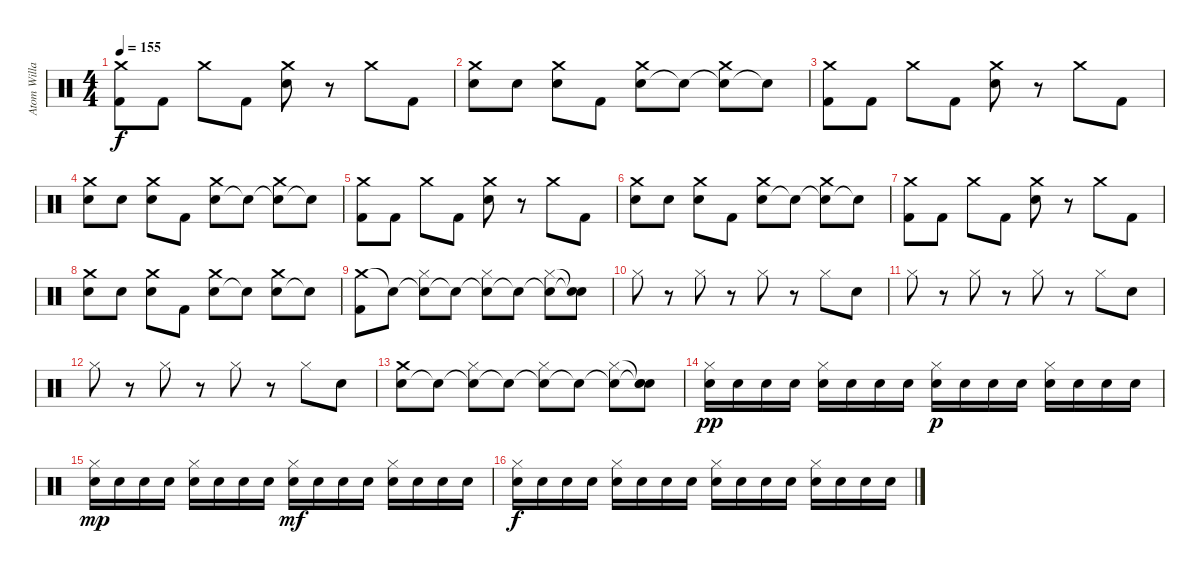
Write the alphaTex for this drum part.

\track ("Atom Willard - Drums" "Atom Willa") {instrument percussion}
\staff {score}
\articulation defaults
\ts (4 4)
\tempo 155
\clef neutral
\ks c
("Kick (hit) 2" "Crash medium (hit)").8{dy f} "Kick (hit) 2".8 "Crash medium (hit)".8 "Kick (hit) 2".8 ("Electric Snare (hit)" "Crash medium (hit)").8 r.8 "Crash medium (hit)".8 "Kick (hit) 2".8 |
("Snare (hit)" "Crash medium (hit)").8 "Electric Snare (hit)".8 ("Snare (hit)" "Crash medium (hit)").8 "Kick (hit) 2".8 ("Electric Snare (hit)" "Crash medium (hit)").8 "Snare (hit)"{t}.8 ("Snare (hit)"{t} "Crash medium (hit)").8 "Snare (hit)"{t}.8 |
("Kick (hit) 2" "Crash medium (hit)").8 "Kick (hit) 2".8 "Crash medium (hit)".8 "Kick (hit) 2".8 ("Electric Snare (hit)" "Crash medium (hit)").8 r.8 "Crash medium (hit)".8 "Kick (hit) 2".8 |
("Snare (hit)" "Crash medium (hit)").8 "Electric Snare (hit)".8 ("Snare (hit)" "Crash medium (hit)").8 "Kick (hit) 2".8 ("Electric Snare (hit)" "Crash medium (hit)").8 "Snare (hit)"{t}.8 ("Snare (hit)"{t} "Crash medium (hit)").8 "Snare (hit)"{t}.8 |
("Kick (hit) 2" "Crash medium (hit)").8 "Kick (hit) 2".8 "Crash medium (hit)".8 "Kick (hit) 2".8 ("Electric Snare (hit)" "Crash medium (hit)").8 r.8 "Crash medium (hit)".8 "Kick (hit) 2".8 |
("Snare (hit)" "Crash medium (hit)").8 "Electric Snare (hit)".8 ("Snare (hit)" "Crash medium (hit)").8 "Kick (hit) 2".8 ("Electric Snare (hit)" "Crash medium (hit)").8 "Snare (hit)"{t}.8 ("Snare (hit)"{t} "Crash medium (hit)").8 "Snare (hit)"{t}.8 |
("Kick (hit) 2" "Crash medium (hit)").8 "Kick (hit) 2".8 "Crash medium (hit)".8 "Kick (hit) 2".8 ("Electric Snare (hit)" "Crash medium (hit)").8 r.8 "Crash medium (hit)".8 "Kick (hit) 2".8 |
("Snare (hit)" "Crash medium (hit)").8 "Electric Snare (hit)".8 ("Snare (hit)" "Crash medium (hit)").8 "Kick (hit) 2".8 ("Electric Snare (hit)" "Crash medium (hit)").8 "Snare (hit)"{t}.8 ("Electric Snare (hit)" "Crash medium (hit)").8 "Snare (hit)"{t}.8 |
("Crash medium (hit)" "Kick (hit) 2").8 "Snare (hit)"{t}.8 ("Snare (hit)"{t} "Hi-Hat (closed)").8 "Snare (hit)"{t}.8 ("Snare (hit)"{t} "Hi-Hat (closed)").8 "Snare (hit)"{t}.8 ("Snare (hit)"{t} "Hi-Hat (closed)").8 ("Snare (hit)"{t} "Snare (hit)"{t}).8 |
"Hi-Hat (closed)".8 r.8 "Hi-Hat (closed)".8 r.8 "Hi-Hat (closed)".8 r.8 "Hi-Hat (closed)".8 "Snare (hit)".8 |
"Hi-Hat (closed)".8 r.8 "Hi-Hat (closed)".8 r.8 "Hi-Hat (closed)".8 r.8 "Hi-Hat (closed)".8 "Snare (hit)".8 |
"Hi-Hat (closed)".8 r.8 "Hi-Hat (closed)".8 r.8 "Hi-Hat (closed)".8 r.8 "Hi-Hat (closed)".8 "Snare (hit)".8 |
("Electric Snare (hit)" "Crash medium (hit)").8 "Snare (hit)"{t}.8 ("Snare (hit)"{t} "Hi-Hat (closed)").8 "Snare (hit)"{t}.8 ("Snare (hit)"{t} "Hi-Hat (closed)").8 "Snare (hit)"{t}.8 ("Snare (hit)"{t} "Hi-Hat (closed)").8 ("Snare (hit)"{t} "Snare (hit)"{t} "Snare (hit)").8 |
("Electric Snare (hit)" "Hi-Hat (closed)").16{dy pp} "Electric Snare (hit)".16 "Electric Snare (hit)".16 "Electric Snare (hit)".16 ("Electric Snare (hit)" "Hi-Hat (closed)").16 "Electric Snare (hit)".16 "Electric Snare (hit)".16 "Electric Snare (hit)".16 ("Electric Snare (hit)" "Hi-Hat (closed)").16{dy p} "Electric Snare (hit)".16 "Electric Snare (hit)".16 "Electric Snare (hit)".16 ("Electric Snare (hit)" "Hi-Hat (closed)").16 "Electric Snare (hit)".16 "Electric Snare (hit)".16 "Electric Snare (hit)".16 |
("Electric Snare (hit)" "Hi-Hat (closed)").16{dy mp} "Electric Snare (hit)".16 "Electric Snare (hit)".16 "Electric Snare (hit)".16 ("Electric Snare (hit)" "Hi-Hat (closed)").16 "Electric Snare (hit)".16 "Electric Snare (hit)".16 "Electric Snare (hit)".16 ("Electric Snare (hit)" "Hi-Hat (closed)").16{dy mf} "Electric Snare (hit)".16 "Electric Snare (hit)".16 "Electric Snare (hit)".16 ("Electric Snare (hit)" "Hi-Hat (closed)").16 "Electric Snare (hit)".16 "Electric Snare (hit)".16 "Electric Snare (hit)".16 |
("Electric Snare (hit)" "Hi-Hat (closed)").16{dy f} "Electric Snare (hit)".16 "Electric Snare (hit)".16 "Electric Snare (hit)".16 ("Electric Snare (hit)" "Hi-Hat (closed)").16 "Electric Snare (hit)".16 "Electric Snare (hit)".16 "Electric Snare (hit)".16 ("Electric Snare (hit)" "Hi-Hat (closed)").16 "Electric Snare (hit)".16 "Electric Snare (hit)".16 "Electric Snare (hit)".16 ("Electric Snare (hit)" "Hi-Hat (closed)").16 "Electric Snare (hit)".16 "Electric Snare (hit)".16 "Electric Snare (hit)".16
